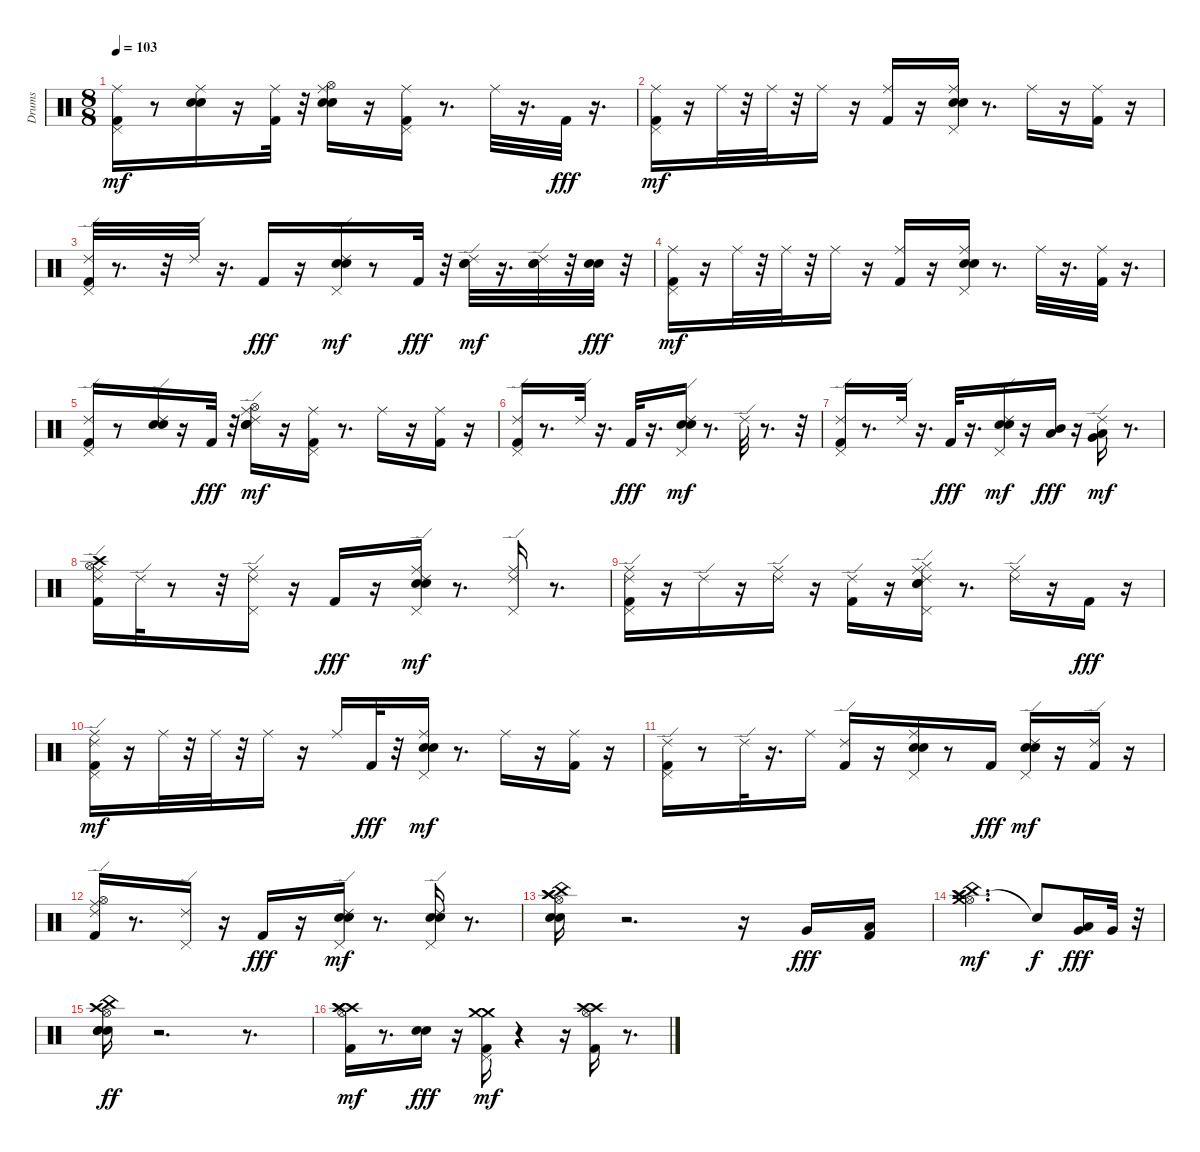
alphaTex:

\track ("Drums" "Drums") {instrument percussion}
\staff {score}
\articulation defaults
\ts (8 8)
\tempo 103
\clef neutral
\ks c
("Kick (hit) 2" "Pedal Hi-Hat (hit)" "Ride (middle)").16{dy mf} r.8 ("Electric Snare (hit)" "Snare (hit) 2" "Ride (middle)").16 r.16 ("Kick (hit) 2" "Ride (middle)").32 r.32 ("Electric Snare (hit)" "Snare (hit) 2" "Hi-Hat (open)" "Ride (middle)").16 r.16 ("Kick (hit) 2" "Pedal Hi-Hat (hit)" "Ride (middle)").16 r.8{d} "Ride (middle)".32 r.16{d} "Kick (hit) 2".32{dy fff} r.16{d} |
("Kick (hit) 2" "Pedal Hi-Hat (hit)" "Ride (middle)").16{dy mf} r.16 "Ride (middle)".32 r.32 "Ride (middle)".32 r.32 "Ride (middle)".16 r.16 ("Kick (hit) 2" "Ride (middle)").16 r.16 ("Electric Snare (hit)" "Snare (hit) 2" "Pedal Hi-Hat (hit)" "Ride (middle)").16 r.8{d} "Ride (middle)".16 r.16 ("Kick (hit) 2" "Ride (middle)").16 r.16 |
("Kick (hit) 2" "Pedal Hi-Hat (hit)" "Ride (edge) 2").32 r.8{d} r.32 "Ride (edge) 2".32 r.16{d} "Kick (hit) 2".16{dy fff} r.16 ("Electric Snare (hit)" "Snare (hit) 2" "Pedal Hi-Hat (hit)" "Ride (edge) 2").16{dy mf} r.8 "Kick (hit) 2".32{dy fff} r.32 ("Electric Snare (hit)" "Snare (hit) 2" "Ride (edge) 2").32{dy mf} r.16{d} ("Electric Snare (hit)" "Snare (hit) 2" "Ride (edge) 2").32 r.32 ("Electric Snare (hit)" "Snare (hit) 2").32{dy fff} r.32 |
("Kick (hit) 2" "Pedal Hi-Hat (hit)" "Ride (middle)").16{dy mf} r.16 "Ride (middle)".32 r.32 "Ride (middle)".32 r.32 "Ride (middle)".16 r.16 ("Kick (hit) 2" "Ride (middle)").16 r.16 ("Electric Snare (hit)" "Snare (hit) 2" "Pedal Hi-Hat (hit)" "Ride (middle)").16 r.8{d} "Ride (middle)".32 r.16{d} ("Kick (hit) 2" "Ride (middle)").32 r.16{d} |
("Kick (hit) 2" "Pedal Hi-Hat (hit)" "Ride (edge) 2").16 r.8 ("Electric Snare (hit)" "Snare (hit) 2" "Ride (edge) 2").16 r.16 "Kick (hit) 2".32{dy fff} r.32 ("Electric Snare (hit)" "Snare (hit) 2" "Hi-Hat (open)" "Ride (middle)" "Ride (edge) 2").16{dy mf} r.16 ("Kick (hit) 2" "Pedal Hi-Hat (hit)" "Ride (middle)").16 r.8{d} "Ride (middle)".16 r.16 ("Kick (hit) 2" "Ride (middle)").16 r.16 |
("Kick (hit) 2" "Pedal Hi-Hat (hit)" "Ride (edge) 2").16 r.8{d} "Ride (edge) 2".32 r.16{d} "Kick (hit) 2".32{dy fff} r.16{d} ("Electric Snare (hit)" "Snare (hit) 2" "Pedal Hi-Hat (hit)" "Ride (edge) 2").16{dy mf} r.8{d} "Ride (edge) 2".32 r.8{d} r.32 |
("Kick (hit) 2" "Pedal Hi-Hat (hit)" "Ride (edge) 2").16 r.8{d} "Ride (edge) 2".32 r.16{d} "Kick (hit) 2".32{dy fff} r.16{d} ("Electric Snare (hit)" "Snare (hit) 2" "Pedal Hi-Hat (hit)" "Ride (edge) 2").16{dy mf} r.16 ("Low Tom (hit)" "Mid Tom (hit)").16{dy fff} r.16 ("Low Tom (hit)" "Very Low Tom (hit)" "Ride (edge) 2").16{dy mf} r.8{d} |
("Crash high (hit)" "Kick (hit) 2" "Hi-Hat (open)" "Ride (edge) 2" "Ride (middle)").16 "Ride (edge) 2".32 r.8 r.32 ("Pedal Hi-Hat (hit)" "Ride (edge) 2" "Ride (middle)").16 r.16 "Kick (hit) 2".16{dy fff} r.16 ("Electric Snare (hit)" "Snare (hit) 2" "Pedal Hi-Hat (hit)" "Ride (middle)" "Ride (edge) 2").16{dy mf} r.8{d} ("Pedal Hi-Hat (hit)" "Ride (edge) 2" "Ride (middle)").16 r.8{d} |
("Kick (hit) 2" "Pedal Hi-Hat (hit)" "Ride (middle)" "Ride (edge) 2").16 r.16 "Ride (edge) 2".16 r.16 ("Ride (middle)" "Ride (edge) 2").16 r.16 ("Kick (hit) 2" "Ride (edge) 2").16 r.16 ("Electric Snare (hit)" "Snare (hit) 2" "Pedal Hi-Hat (hit)" "Hi-Hat (closed)" "Ride (edge) 2" "Ride (middle)").16 r.8{d} ("Ride (middle)" "Ride (edge) 2").16 r.16 "Kick (hit) 2".16{dy fff} r.16 |
("Kick (hit) 2" "Pedal Hi-Hat (hit)" "Ride (middle)" "Ride (edge) 2").16{dy mf} r.16 "Ride (middle)".32 r.32 "Ride (middle)".32 r.32 "Ride (middle)".16 r.16 "Ride (middle)".16 "Kick (hit) 2".32{dy fff} r.32 ("Electric Snare (hit)" "Snare (hit) 2" "Pedal Hi-Hat (hit)" "Ride (middle)").16{dy mf} r.8{d} "Ride (middle)".16 r.16 ("Kick (hit) 2" "Ride (middle)").16 r.16 |
("Kick (hit) 2" "Pedal Hi-Hat (hit)" "Ride (edge) 2").16 r.8 "Ride (edge) 2".32 r.16{d} "Ride (middle)".16 ("Kick (hit) 2" "Ride (edge) 2").16 r.16 ("Electric Snare (hit)" "Snare (hit) 2" "Pedal Hi-Hat (hit)" "Ride (middle)").16 r.8 "Kick (hit) 2".16{dy fff} ("Electric Snare (hit)" "Snare (hit) 2" "Pedal Hi-Hat (hit)" "Ride (edge) 2").16{dy mf} r.16 ("Kick (hit) 2" "Ride (edge) 2").16 r.16 |
("Kick (hit) 2" "Hi-Hat (open)" "Ride (edge) 2" "Ride (middle)").16 r.8{d} ("Pedal Hi-Hat (hit)" "Ride (edge) 2").16 r.16 "Kick (hit) 2".16{dy fff} r.16 ("Electric Snare (hit)" "Snare (hit) 2" "Pedal Hi-Hat (hit)" "Ride (edge) 2").16{dy mf} r.8{d} ("Electric Snare (hit)" "Snare (hit) 2" "Pedal Hi-Hat (hit)" "Ride (edge) 2").16 r.8{d} |
("Electric Snare (hit)" "Snare (hit) 2" "Crash high (hit)" "Hi-Hat (open)" "China (hit)" "Crash high (hit)").16 r.2{d} r.16 "Very Low Tom (hit)".16{dy fff} ("Low Tom (hit)" "Kick (hit) 2").16 |
("Crash high (hit)" "Hi-Hat (open)" "China (hit)" "Crash medium (hit)" "Crash high (hit)").2{d dy mf} "Snare (hit)"{t}.8{dy f} ("Very Low Tom (hit)" "Low Tom (hit)").16{dy fff} "Very Low Tom (hit)".32 r.32 |
("Electric Snare (hit)" "Crash high (hit)" "Snare (hit) 2" "Electric Snare (hit)" "Hi-Hat (open)" "China (hit)").16{dy ff} r.2{d} r.8{d} |
("Crash high (hit)" "Kick (hit) 2" "Hi-Hat (open)" "Crash high (hit)" "Crash high (hit)").16{dy mf} r.8{d} ("Electric Snare (hit)" "Snare (hit) 2").16{dy fff} r.16 ("Kick (hit) 2" "Crash medium (hit)" "Pedal Hi-Hat (hit)" "Crash medium (hit)").16{dy mf} r.4 r.16 ("Crash high (hit)" "Kick (hit) 2" "Hi-Hat (open)" "Crash high (hit)").16 r.8{d}
